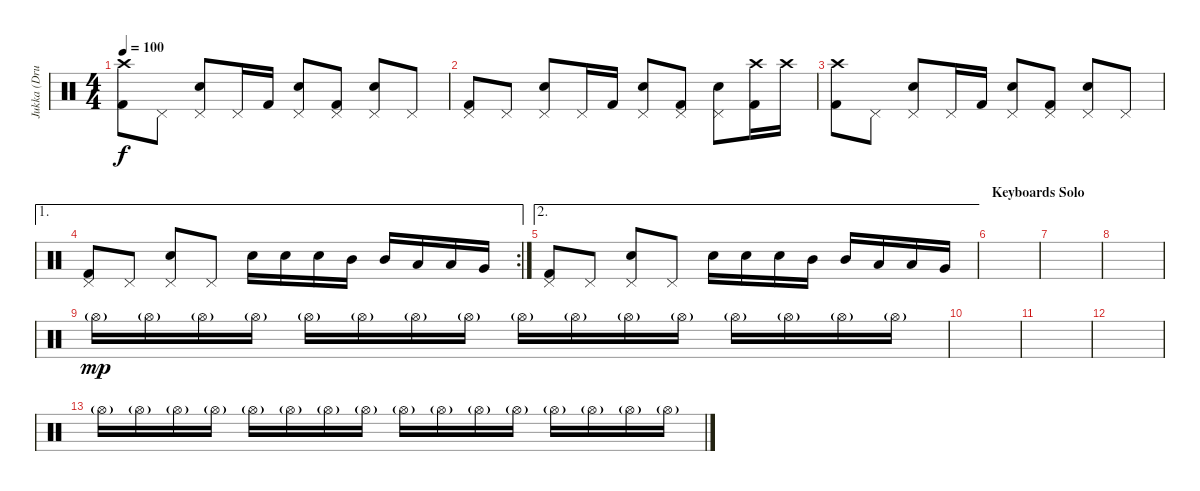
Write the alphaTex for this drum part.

\track ("Jukka (Drums)" "Jukka (Dru") {instrument percussion}
\staff {score}
\articulation defaults
\ts (4 4)
\tempo 100
\clef neutral
\ks c
("Crash high (hit)" "Kick (hit) 2").8{dy f} "Pedal Hi-Hat (hit)".8 ("Pedal Hi-Hat (hit)" "Snare (hit) 2").8 "Pedal Hi-Hat (hit)".16 "Kick (hit) 2".16 ("Pedal Hi-Hat (hit)" "Snare (hit) 2").8 ("Pedal Hi-Hat (hit)" "Kick (hit) 2").8 ("Pedal Hi-Hat (hit)" "Snare (hit) 2").8 "Pedal Hi-Hat (hit)".8 |
("Pedal Hi-Hat (hit)" "Kick (hit) 2").8 "Pedal Hi-Hat (hit)".8 ("Pedal Hi-Hat (hit)" "Snare (hit) 2").8 "Pedal Hi-Hat (hit)".16 "Kick (hit) 2".16 ("Pedal Hi-Hat (hit)" "Snare (hit) 2").8 ("Pedal Hi-Hat (hit)" "Kick (hit) 2").8 ("Pedal Hi-Hat (hit)" "Snare (hit) 2").8 ("Crash high (hit)" "Kick (hit) 2").16 "Crash high (hit)".16 |
("Crash high (hit)" "Kick (hit) 2").8 "Pedal Hi-Hat (hit)".8 ("Pedal Hi-Hat (hit)" "Snare (hit) 2").8 "Pedal Hi-Hat (hit)".16 "Kick (hit) 2".16 ("Pedal Hi-Hat (hit)" "Snare (hit) 2").8 ("Pedal Hi-Hat (hit)" "Kick (hit) 2").8 ("Pedal Hi-Hat (hit)" "Snare (hit) 2").8 "Pedal Hi-Hat (hit)".8 |
\ae 1
\rc 2
("Pedal Hi-Hat (hit)" "Kick (hit) 2").8 "Pedal Hi-Hat (hit)".8 ("Pedal Hi-Hat (hit)" "Snare (hit) 2").8 "Pedal Hi-Hat (hit)".8 "Snare (hit) 2".16 "Snare (hit) 2".16 "Snare (hit) 2".16 "Mid Tom (hit)".16 "Mid Tom (hit)".16 "Low Tom (hit)".16 "Low Tom (hit)".16 "Very Low Tom (hit)".16 |
\ae 2
("Pedal Hi-Hat (hit)" "Kick (hit) 2").8 "Pedal Hi-Hat (hit)".8 ("Pedal Hi-Hat (hit)" "Snare (hit) 2").8 "Pedal Hi-Hat (hit)".8 "Snare (hit) 2".16 "Snare (hit) 2".16 "Snare (hit) 2".16 "Mid Tom (hit)".16 "Mid Tom (hit)".16 "Low Tom (hit)".16 "Low Tom (hit)".16 "Very Low Tom (hit)".16 |
\section ("" "Keyboards Solo")
|
|
|
"Hi-Hat (open)"{g}.16{dy mp volume 2} "Hi-Hat (open)"{g}.16 "Hi-Hat (open)"{g}.16{volume 4} "Hi-Hat (open)"{g}.16 "Hi-Hat (open)"{g}.16{volume 6} "Hi-Hat (open)"{g}.16 "Hi-Hat (open)"{g}.16{volume 8} "Hi-Hat (open)"{g}.16 "Hi-Hat (open)"{g}.16{volume 10} "Hi-Hat (open)"{g}.16 "Hi-Hat (open)"{g}.16{volume 12} "Hi-Hat (open)"{g}.16 "Hi-Hat (open)"{g}.16{volume 14} "Hi-Hat (open)"{g}.16 "Hi-Hat (open)"{g}.16{volume 16} "Hi-Hat (open)"{g}.16 |
|
|
|
"Hi-Hat (open)"{g}.16{volume 2} "Hi-Hat (open)"{g}.16 "Hi-Hat (open)"{g}.16{volume 4} "Hi-Hat (open)"{g}.16 "Hi-Hat (open)"{g}.16{volume 6} "Hi-Hat (open)"{g}.16 "Hi-Hat (open)"{g}.16{volume 8} "Hi-Hat (open)"{g}.16 "Hi-Hat (open)"{g}.16{volume 10} "Hi-Hat (open)"{g}.16 "Hi-Hat (open)"{g}.16{volume 12} "Hi-Hat (open)"{g}.16 "Hi-Hat (open)"{g}.16{volume 14} "Hi-Hat (open)"{g}.16 "Hi-Hat (open)"{g}.16{volume 16} "Hi-Hat (open)"{g}.16
